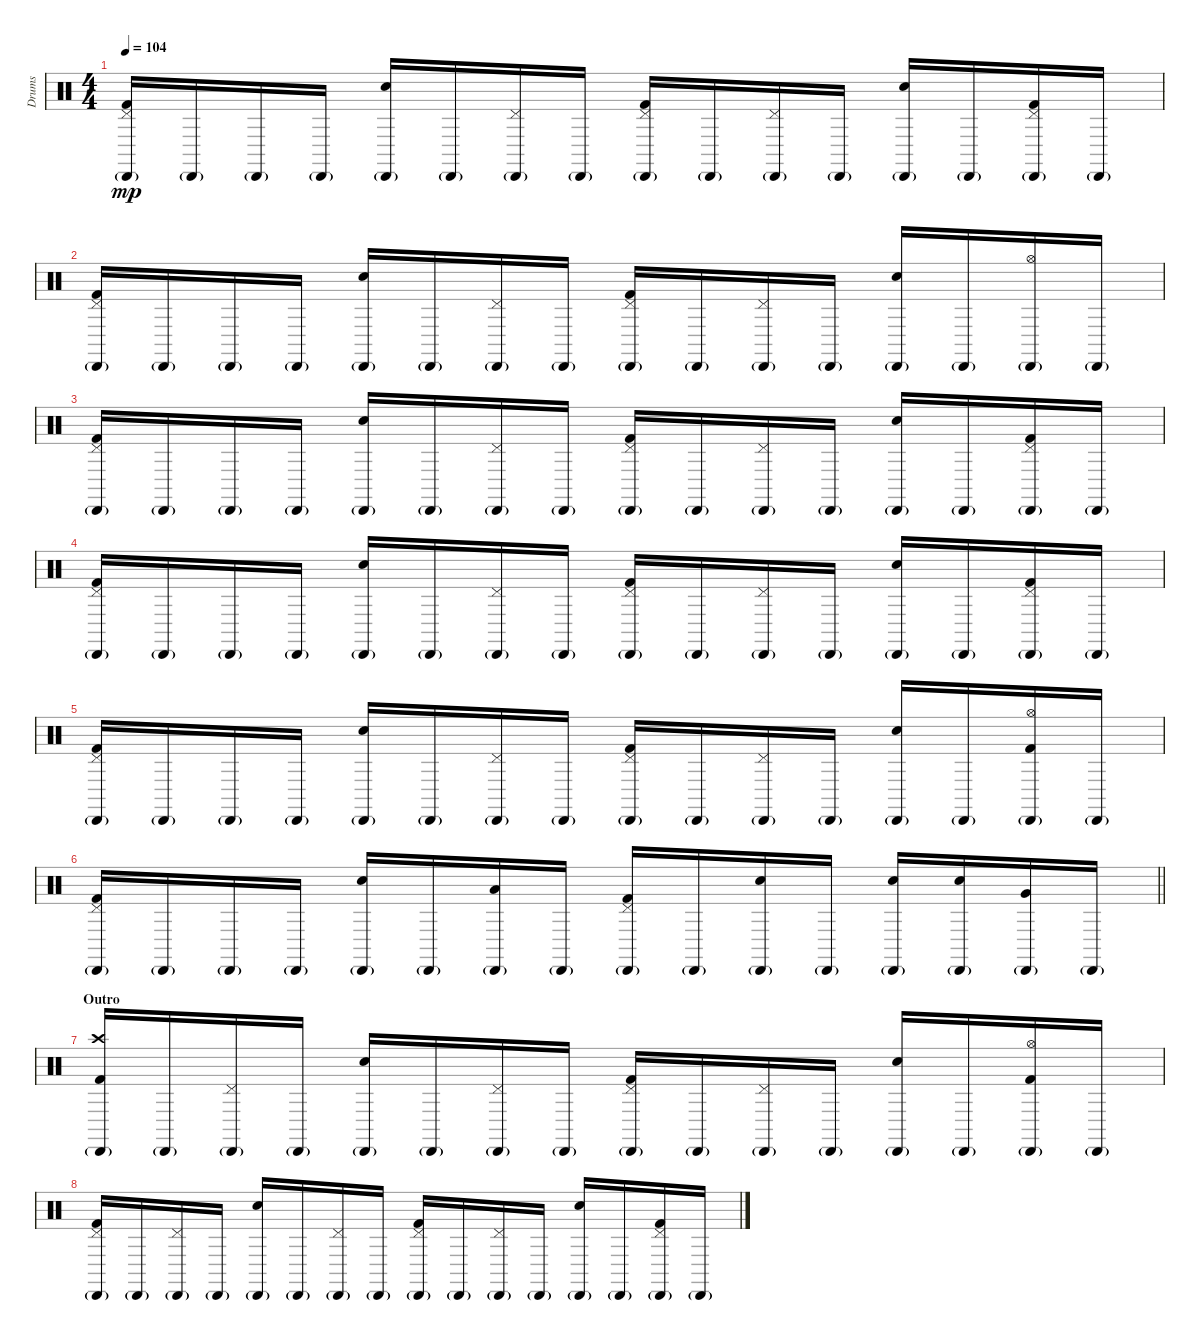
\track ("Drums" "Drums") {instrument percussion}
\staff {score}
\articulation defaults
\ts (4 4)
\tempo 104
\clef neutral
\ks c
("Pedal Hi-Hat (hit)" "Cabasa (hit)"{g} "Kick (hit) 2").16{dy mp} "Cabasa (hit)"{g}.16 "Cabasa (hit)"{g}.16 "Cabasa (hit)"{g}.16 ("Snare (hit) 2" "Cabasa (hit)"{g}).16 "Cabasa (hit)"{g}.16 ("Pedal Hi-Hat (hit)" "Cabasa (hit)"{g}).16 "Cabasa (hit)"{g}.16 ("Pedal Hi-Hat (hit)" "Cabasa (hit)"{g} "Kick (hit) 2").16 "Cabasa (hit)"{g}.16 ("Pedal Hi-Hat (hit)" "Cabasa (hit)"{g}).16 "Cabasa (hit)"{g}.16 ("Snare (hit) 2" "Cabasa (hit)"{g}).16 "Cabasa (hit)"{g}.16 ("Pedal Hi-Hat (hit)" "Cabasa (hit)"{g} "Kick (hit) 2").16 "Cabasa (hit)"{g}.16 |
("Pedal Hi-Hat (hit)" "Cabasa (hit)"{g} "Kick (hit) 2").16 "Cabasa (hit)"{g}.16 "Cabasa (hit)"{g}.16 "Cabasa (hit)"{g}.16 ("Snare (hit) 2" "Cabasa (hit)"{g}).16 "Cabasa (hit)"{g}.16 ("Pedal Hi-Hat (hit)" "Cabasa (hit)"{g}).16 "Cabasa (hit)"{g}.16 ("Pedal Hi-Hat (hit)" "Cabasa (hit)"{g} "Kick (hit) 2").16 "Cabasa (hit)"{g}.16 ("Pedal Hi-Hat (hit)" "Cabasa (hit)"{g}).16 "Cabasa (hit)"{g}.16 ("Snare (hit) 2" "Cabasa (hit)"{g}).16 "Cabasa (hit)"{g}.16 ("Hi-Hat (open)" "Cabasa (hit)"{g}).16 "Cabasa (hit)"{g}.16 |
("Pedal Hi-Hat (hit)" "Cabasa (hit)"{g} "Kick (hit) 2").16 "Cabasa (hit)"{g}.16 "Cabasa (hit)"{g}.16 "Cabasa (hit)"{g}.16 ("Snare (hit) 2" "Cabasa (hit)"{g}).16 "Cabasa (hit)"{g}.16 ("Pedal Hi-Hat (hit)" "Cabasa (hit)"{g}).16 "Cabasa (hit)"{g}.16 ("Pedal Hi-Hat (hit)" "Cabasa (hit)"{g} "Kick (hit) 2").16 "Cabasa (hit)"{g}.16 ("Pedal Hi-Hat (hit)" "Cabasa (hit)"{g}).16 "Cabasa (hit)"{g}.16 ("Snare (hit) 2" "Cabasa (hit)"{g}).16 "Cabasa (hit)"{g}.16 ("Pedal Hi-Hat (hit)" "Cabasa (hit)"{g} "Kick (hit) 2").16 "Cabasa (hit)"{g}.16 |
("Pedal Hi-Hat (hit)" "Cabasa (hit)"{g} "Kick (hit) 2").16 "Cabasa (hit)"{g}.16 "Cabasa (hit)"{g}.16 "Cabasa (hit)"{g}.16 ("Snare (hit) 2" "Cabasa (hit)"{g}).16 "Cabasa (hit)"{g}.16 ("Pedal Hi-Hat (hit)" "Cabasa (hit)"{g}).16 "Cabasa (hit)"{g}.16 ("Pedal Hi-Hat (hit)" "Cabasa (hit)"{g} "Kick (hit) 2").16 "Cabasa (hit)"{g}.16 ("Pedal Hi-Hat (hit)" "Cabasa (hit)"{g}).16 "Cabasa (hit)"{g}.16 ("Snare (hit) 2" "Cabasa (hit)"{g}).16 "Cabasa (hit)"{g}.16 ("Pedal Hi-Hat (hit)" "Cabasa (hit)"{g} "Kick (hit) 2").16 "Cabasa (hit)"{g}.16 |
("Pedal Hi-Hat (hit)" "Cabasa (hit)"{g} "Kick (hit) 2").16 "Cabasa (hit)"{g}.16 "Cabasa (hit)"{g}.16 "Cabasa (hit)"{g}.16 ("Snare (hit) 2" "Cabasa (hit)"{g}).16 "Cabasa (hit)"{g}.16 ("Pedal Hi-Hat (hit)" "Cabasa (hit)"{g}).16 "Cabasa (hit)"{g}.16 ("Pedal Hi-Hat (hit)" "Cabasa (hit)"{g} "Kick (hit) 2").16 "Cabasa (hit)"{g}.16 ("Pedal Hi-Hat (hit)" "Cabasa (hit)"{g}).16 "Cabasa (hit)"{g}.16 ("Snare (hit) 2" "Cabasa (hit)"{g}).16 "Cabasa (hit)"{g}.16 ("Hi-Hat (open)" "Cabasa (hit)"{g} "Kick (hit) 2").16 "Cabasa (hit)"{g}.16 |
\barLineRight lightlight
("Pedal Hi-Hat (hit)" "Cabasa (hit)"{g} "Kick (hit) 2").16 "Cabasa (hit)"{g}.16 "Cabasa (hit)"{g}.16 "Cabasa (hit)"{g}.16 ("Snare (hit) 2" "Cabasa (hit)"{g}).16 "Cabasa (hit)"{g}.16 ("Low Tom (hit)" "Cabasa (hit)"{g}).16 "Cabasa (hit)"{g}.16 ("Pedal Hi-Hat (hit)" "Cabasa (hit)"{g} "Kick (hit) 2").16 "Cabasa (hit)"{g}.16 ("Snare (hit) 2" "Cabasa (hit)"{g}).16 "Cabasa (hit)"{g}.16 ("Snare (hit) 2" "Cabasa (hit)"{g}).16 ("Snare (hit) 2" "Cabasa (hit)"{g}).16 ("Very Low Tom (hit)" "Cabasa (hit)"{g}).16 "Cabasa (hit)"{g}.16 |
\section ("" "Outro")
("Crash high (hit)" "Cabasa (hit)"{g} "Kick (hit) 2").16 "Cabasa (hit)"{g}.16 ("Pedal Hi-Hat (hit)" "Cabasa (hit)"{g}).16 "Cabasa (hit)"{g}.16 ("Snare (hit) 2" "Cabasa (hit)"{g}).16 "Cabasa (hit)"{g}.16 ("Pedal Hi-Hat (hit)" "Cabasa (hit)"{g}).16 "Cabasa (hit)"{g}.16 ("Pedal Hi-Hat (hit)" "Cabasa (hit)"{g} "Kick (hit) 2").16 "Cabasa (hit)"{g}.16 ("Pedal Hi-Hat (hit)" "Cabasa (hit)"{g}).16 "Cabasa (hit)"{g}.16 ("Snare (hit) 2" "Cabasa (hit)"{g}).16 "Cabasa (hit)"{g}.16 ("Hi-Hat (open)" "Cabasa (hit)"{g} "Kick (hit) 2").16 "Cabasa (hit)"{g}.16 |
("Pedal Hi-Hat (hit)" "Cabasa (hit)"{g} "Kick (hit) 2").16 "Cabasa (hit)"{g}.16 ("Pedal Hi-Hat (hit)" "Cabasa (hit)"{g}).16 "Cabasa (hit)"{g}.16 ("Snare (hit) 2" "Cabasa (hit)"{g}).16 "Cabasa (hit)"{g}.16 ("Pedal Hi-Hat (hit)" "Cabasa (hit)"{g}).16 "Cabasa (hit)"{g}.16 ("Pedal Hi-Hat (hit)" "Cabasa (hit)"{g} "Kick (hit) 2").16 "Cabasa (hit)"{g}.16 ("Pedal Hi-Hat (hit)" "Cabasa (hit)"{g}).16 "Cabasa (hit)"{g}.16 ("Snare (hit) 2" "Cabasa (hit)"{g}).16 "Cabasa (hit)"{g}.16 ("Pedal Hi-Hat (hit)" "Cabasa (hit)"{g} "Kick (hit) 2").16 "Cabasa (hit)"{g}.16
